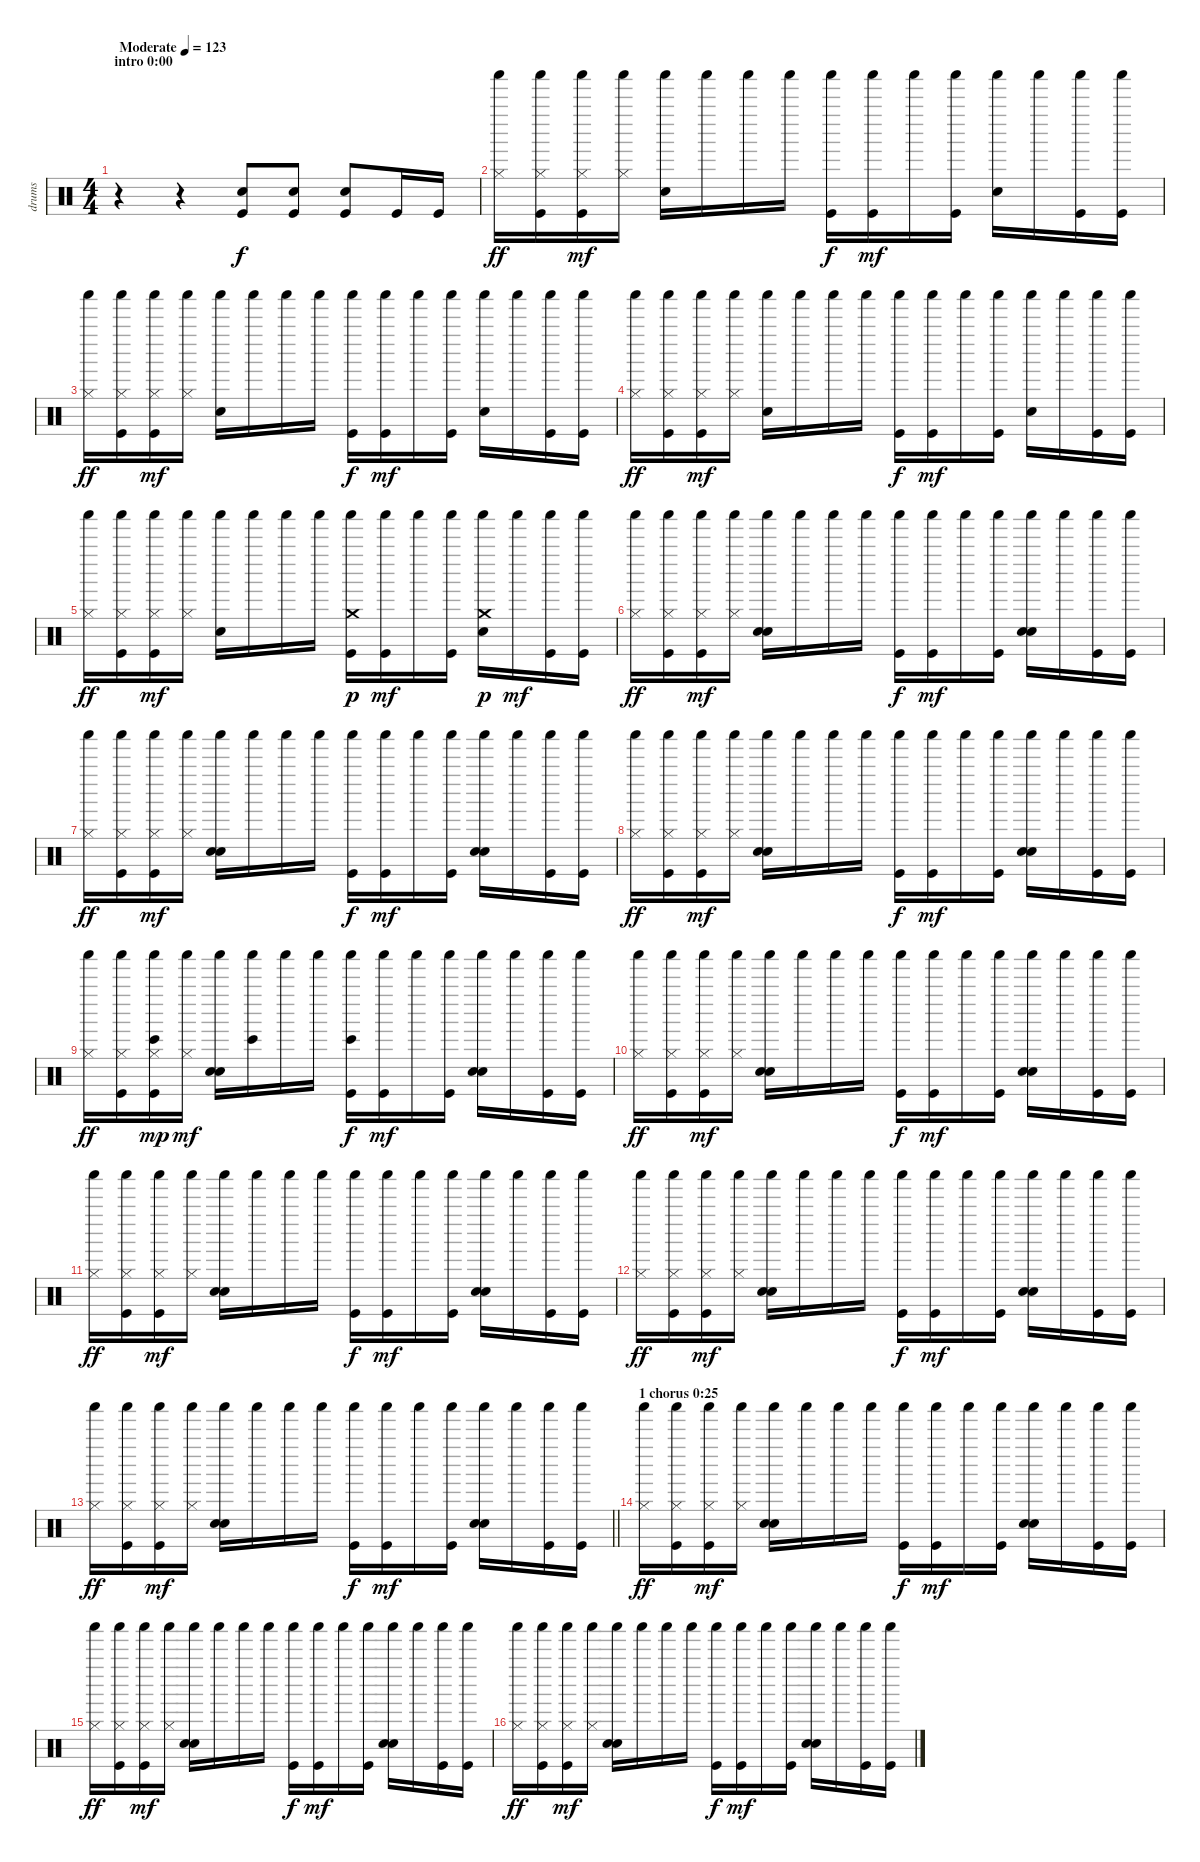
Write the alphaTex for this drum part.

\track ("drums" "drums") {instrument percussion}
\staff {score}
\articulation defaults
\ts (4 4)
\section ("" "intro 0:00")
\tempo (123 "Moderate")
\clef neutral
\ks c
r.4{dy f} r.4 ("Electric Snare (hit)" "Kick (hit)").8 ("Electric Snare (hit)" "Kick (hit)").8 ("Electric Snare (hit)" "Kick (hit)").8 "Kick (hit)".16 "Kick (hit)".16 |
("Shaker (hit)" "Hi-Hat (closed)").16{dy ff} ("Shaker (hit)" "Hi-Hat (closed)" "Kick (hit)").16 ("Shaker (hit)" "Hi-Hat (closed)" "Kick (hit)").16{dy mf} ("Shaker (hit)" "Hi-Hat (closed)").16 ("Shaker (hit)" "Electric Snare (hit)").16 "Shaker (hit)".16 "Shaker (hit)".16 "Shaker (hit)".16 ("Shaker (hit)" "Kick (hit)").16{dy f} ("Shaker (hit)" "Kick (hit)").16{dy mf} "Shaker (hit)".16 ("Shaker (hit)" "Kick (hit)").16 ("Shaker (hit)" "Electric Snare (hit)").16 "Shaker (hit)".16 ("Shaker (hit)" "Kick (hit)").16 ("Shaker (hit)" "Kick (hit)").16 |
("Shaker (hit)" "Hi-Hat (closed)").16{dy ff} ("Shaker (hit)" "Hi-Hat (closed)" "Kick (hit)").16 ("Shaker (hit)" "Hi-Hat (closed)" "Kick (hit)").16{dy mf} ("Shaker (hit)" "Hi-Hat (closed)").16 ("Shaker (hit)" "Electric Snare (hit)").16 "Shaker (hit)".16 "Shaker (hit)".16 "Shaker (hit)".16 ("Shaker (hit)" "Kick (hit)").16{dy f} ("Shaker (hit)" "Kick (hit)").16{dy mf} "Shaker (hit)".16 ("Shaker (hit)" "Kick (hit)").16 ("Shaker (hit)" "Electric Snare (hit)").16 "Shaker (hit)".16 ("Shaker (hit)" "Kick (hit)").16 ("Shaker (hit)" "Kick (hit)").16 |
("Shaker (hit)" "Hi-Hat (closed)").16{dy ff} ("Shaker (hit)" "Hi-Hat (closed)" "Kick (hit)").16 ("Shaker (hit)" "Hi-Hat (closed)" "Kick (hit)").16{dy mf} ("Shaker (hit)" "Hi-Hat (closed)").16 ("Shaker (hit)" "Electric Snare (hit)").16 "Shaker (hit)".16 "Shaker (hit)".16 "Shaker (hit)".16 ("Shaker (hit)" "Kick (hit)").16{dy f} ("Shaker (hit)" "Kick (hit)").16{dy mf} "Shaker (hit)".16 ("Shaker (hit)" "Kick (hit)").16 ("Shaker (hit)" "Electric Snare (hit)").16 "Shaker (hit)".16 ("Shaker (hit)" "Kick (hit)").16 ("Shaker (hit)" "Kick (hit)").16 |
("Shaker (hit)" "Hi-Hat (closed)").16{dy ff} ("Shaker (hit)" "Hi-Hat (closed)" "Kick (hit)").16 ("Shaker (hit)" "Hi-Hat (closed)" "Kick (hit)").16{dy mf} ("Shaker (hit)" "Hi-Hat (closed)").16 ("Shaker (hit)" "Electric Snare (hit)").16 "Shaker (hit)".16 "Shaker (hit)".16 "Shaker (hit)".16 ("Shaker (hit)" "Crash medium (hit)" "Kick (hit)").16{dy p} ("Shaker (hit)" "Kick (hit)").16{dy mf} "Shaker (hit)".16 ("Shaker (hit)" "Kick (hit)").16 ("Shaker (hit)" "Electric Snare (hit)" "Crash medium (hit)").16{dy p} "Shaker (hit)".16{dy mf} ("Shaker (hit)" "Kick (hit)").16 ("Shaker (hit)" "Kick (hit)").16 |
("Shaker (hit)" "Hi-Hat (closed)").16{dy ff} ("Shaker (hit)" "Hi-Hat (closed)" "Kick (hit)").16 ("Shaker (hit)" "Hi-Hat (closed)" "Kick (hit)").16{dy mf} ("Shaker (hit)" "Hi-Hat (closed)").16 ("Shaker (hit)" "Electric Snare (hit)" "Hand Clap (hit)").16 "Shaker (hit)".16 "Shaker (hit)".16 "Shaker (hit)".16 ("Shaker (hit)" "Kick (hit)").16{dy f} ("Shaker (hit)" "Kick (hit)").16{dy mf} "Shaker (hit)".16 ("Shaker (hit)" "Kick (hit)").16 ("Shaker (hit)" "Electric Snare (hit)" "Hand Clap (hit)").16 "Shaker (hit)".16 ("Shaker (hit)" "Kick (hit)").16 ("Shaker (hit)" "Kick (hit)").16 |
("Shaker (hit)" "Hi-Hat (closed)").16{dy ff} ("Shaker (hit)" "Hi-Hat (closed)" "Kick (hit)").16 ("Shaker (hit)" "Hi-Hat (closed)" "Kick (hit)").16{dy mf} ("Shaker (hit)" "Hi-Hat (closed)").16 ("Shaker (hit)" "Electric Snare (hit)" "Hand Clap (hit)").16 "Shaker (hit)".16 "Shaker (hit)".16 "Shaker (hit)".16 ("Shaker (hit)" "Kick (hit)").16{dy f} ("Shaker (hit)" "Kick (hit)").16{dy mf} "Shaker (hit)".16 ("Shaker (hit)" "Kick (hit)").16 ("Shaker (hit)" "Electric Snare (hit)" "Hand Clap (hit)").16 "Shaker (hit)".16 ("Shaker (hit)" "Kick (hit)").16 ("Shaker (hit)" "Kick (hit)").16 |
("Shaker (hit)" "Hi-Hat (closed)").16{dy ff} ("Shaker (hit)" "Hi-Hat (closed)" "Kick (hit)").16 ("Shaker (hit)" "Hi-Hat (closed)" "Kick (hit)").16{dy mf} ("Shaker (hit)" "Hi-Hat (closed)").16 ("Shaker (hit)" "Electric Snare (hit)" "Hand Clap (hit)").16 "Shaker (hit)".16 "Shaker (hit)".16 "Shaker (hit)".16 ("Shaker (hit)" "Kick (hit)").16{dy f} ("Shaker (hit)" "Kick (hit)").16{dy mf} "Shaker (hit)".16 ("Shaker (hit)" "Kick (hit)").16 ("Shaker (hit)" "Electric Snare (hit)" "Hand Clap (hit)").16 "Shaker (hit)".16 ("Shaker (hit)" "Kick (hit)").16 ("Shaker (hit)" "Kick (hit)").16 |
("Shaker (hit)" "Hi-Hat (closed)").16{dy ff} ("Shaker (hit)" "Hi-Hat (closed)" "Kick (hit)").16 ("Shaker (hit)" "Hi-Hat (closed)" "Bongo High (hit)" "Kick (hit)").16{dy mp} ("Shaker (hit)" "Hi-Hat (closed)").16{dy mf} ("Shaker (hit)" "Electric Snare (hit)" "Hand Clap (hit)").16 ("Shaker (hit)" "Bongo High (hit)").16 "Shaker (hit)".16 "Shaker (hit)".16 ("Shaker (hit)" "Bongo High (hit)" "Kick (hit)").16{dy f} ("Shaker (hit)" "Kick (hit)").16{dy mf} "Shaker (hit)".16 ("Shaker (hit)" "Kick (hit)").16 ("Shaker (hit)" "Electric Snare (hit)" "Hand Clap (hit)").16 "Shaker (hit)".16 ("Shaker (hit)" "Kick (hit)").16 ("Shaker (hit)" "Kick (hit)").16 |
("Shaker (hit)" "Hi-Hat (closed)").16{dy ff} ("Shaker (hit)" "Hi-Hat (closed)" "Kick (hit)").16 ("Shaker (hit)" "Hi-Hat (closed)" "Kick (hit)").16{dy mf} ("Shaker (hit)" "Hi-Hat (closed)").16 ("Shaker (hit)" "Electric Snare (hit)" "Hand Clap (hit)").16 "Shaker (hit)".16 "Shaker (hit)".16 "Shaker (hit)".16 ("Shaker (hit)" "Kick (hit)").16{dy f} ("Shaker (hit)" "Kick (hit)").16{dy mf} "Shaker (hit)".16 ("Shaker (hit)" "Kick (hit)").16 ("Shaker (hit)" "Electric Snare (hit)" "Hand Clap (hit)").16 "Shaker (hit)".16 ("Shaker (hit)" "Kick (hit)").16 ("Shaker (hit)" "Kick (hit)").16 |
("Shaker (hit)" "Hi-Hat (closed)").16{dy ff} ("Shaker (hit)" "Hi-Hat (closed)" "Kick (hit)").16 ("Shaker (hit)" "Hi-Hat (closed)" "Kick (hit)").16{dy mf} ("Shaker (hit)" "Hi-Hat (closed)").16 ("Shaker (hit)" "Electric Snare (hit)" "Hand Clap (hit)").16 "Shaker (hit)".16 "Shaker (hit)".16 "Shaker (hit)".16 ("Shaker (hit)" "Kick (hit)").16{dy f} ("Shaker (hit)" "Kick (hit)").16{dy mf} "Shaker (hit)".16 ("Shaker (hit)" "Kick (hit)").16 ("Shaker (hit)" "Electric Snare (hit)" "Hand Clap (hit)").16 "Shaker (hit)".16 ("Shaker (hit)" "Kick (hit)").16 ("Shaker (hit)" "Kick (hit)").16 |
("Shaker (hit)" "Hi-Hat (closed)").16{dy ff} ("Shaker (hit)" "Hi-Hat (closed)" "Kick (hit)").16 ("Shaker (hit)" "Hi-Hat (closed)" "Kick (hit)").16{dy mf} ("Shaker (hit)" "Hi-Hat (closed)").16 ("Shaker (hit)" "Electric Snare (hit)" "Hand Clap (hit)").16 "Shaker (hit)".16 "Shaker (hit)".16 "Shaker (hit)".16 ("Shaker (hit)" "Kick (hit)").16{dy f} ("Shaker (hit)" "Kick (hit)").16{dy mf} "Shaker (hit)".16 ("Shaker (hit)" "Kick (hit)").16 ("Shaker (hit)" "Electric Snare (hit)" "Hand Clap (hit)").16 "Shaker (hit)".16 ("Shaker (hit)" "Kick (hit)").16 ("Shaker (hit)" "Kick (hit)").16 |
\barLineRight lightlight
("Shaker (hit)" "Hi-Hat (closed)").16{dy ff} ("Shaker (hit)" "Hi-Hat (closed)" "Kick (hit)").16 ("Shaker (hit)" "Hi-Hat (closed)" "Kick (hit)").16{dy mf} ("Shaker (hit)" "Hi-Hat (closed)").16 ("Shaker (hit)" "Electric Snare (hit)" "Hand Clap (hit)").16 "Shaker (hit)".16 "Shaker (hit)".16 "Shaker (hit)".16 ("Shaker (hit)" "Kick (hit)").16{dy f} ("Shaker (hit)" "Kick (hit)").16{dy mf} "Shaker (hit)".16 ("Shaker (hit)" "Kick (hit)").16 ("Shaker (hit)" "Electric Snare (hit)" "Hand Clap (hit)").16 "Shaker (hit)".16 ("Shaker (hit)" "Kick (hit)").16 ("Shaker (hit)" "Kick (hit)").16 |
\section ("" "1 chorus 0:25")
("Shaker (hit)" "Hi-Hat (closed)").16{dy ff} ("Shaker (hit)" "Hi-Hat (closed)" "Kick (hit)").16 ("Shaker (hit)" "Hi-Hat (closed)" "Kick (hit)").16{dy mf} ("Shaker (hit)" "Hi-Hat (closed)").16 ("Shaker (hit)" "Electric Snare (hit)" "Hand Clap (hit)").16 "Shaker (hit)".16 "Shaker (hit)".16 "Shaker (hit)".16 ("Shaker (hit)" "Kick (hit)").16{dy f} ("Shaker (hit)" "Kick (hit)").16{dy mf} "Shaker (hit)".16 ("Shaker (hit)" "Kick (hit)").16 ("Shaker (hit)" "Electric Snare (hit)" "Hand Clap (hit)").16 "Shaker (hit)".16 ("Shaker (hit)" "Kick (hit)").16 ("Shaker (hit)" "Kick (hit)").16 |
("Shaker (hit)" "Hi-Hat (closed)").16{dy ff} ("Shaker (hit)" "Hi-Hat (closed)" "Kick (hit)").16 ("Shaker (hit)" "Hi-Hat (closed)" "Kick (hit)").16{dy mf} ("Shaker (hit)" "Hi-Hat (closed)").16 ("Shaker (hit)" "Electric Snare (hit)" "Hand Clap (hit)").16 "Shaker (hit)".16 "Shaker (hit)".16 "Shaker (hit)".16 ("Shaker (hit)" "Kick (hit)").16{dy f} ("Shaker (hit)" "Kick (hit)").16{dy mf} "Shaker (hit)".16 ("Shaker (hit)" "Kick (hit)").16 ("Shaker (hit)" "Electric Snare (hit)" "Hand Clap (hit)").16 "Shaker (hit)".16 ("Shaker (hit)" "Kick (hit)").16 ("Shaker (hit)" "Kick (hit)").16 |
("Shaker (hit)" "Hi-Hat (closed)").16{dy ff} ("Shaker (hit)" "Hi-Hat (closed)" "Kick (hit)").16 ("Shaker (hit)" "Hi-Hat (closed)" "Kick (hit)").16{dy mf} ("Shaker (hit)" "Hi-Hat (closed)").16 ("Shaker (hit)" "Electric Snare (hit)" "Hand Clap (hit)").16 "Shaker (hit)".16 "Shaker (hit)".16 "Shaker (hit)".16 ("Shaker (hit)" "Kick (hit)").16{dy f} ("Shaker (hit)" "Kick (hit)").16{dy mf} "Shaker (hit)".16 ("Shaker (hit)" "Kick (hit)").16 ("Shaker (hit)" "Electric Snare (hit)" "Hand Clap (hit)").16 "Shaker (hit)".16 ("Shaker (hit)" "Kick (hit)").16 ("Shaker (hit)" "Kick (hit)").16
